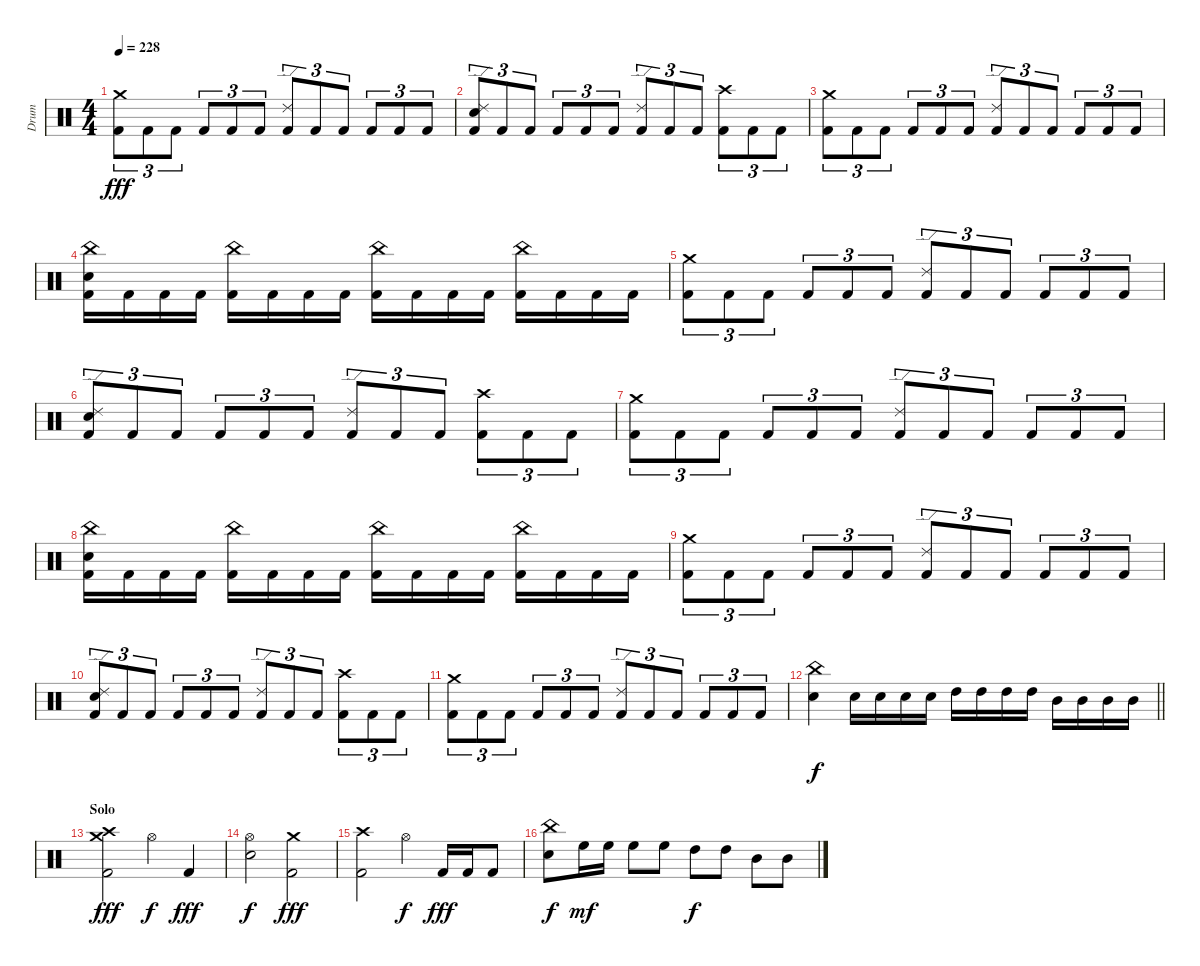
\track ("Drum" "Drum") {instrument percussion}
\staff {score}
\articulation defaults
\ts (4 4)
\tempo 228
\clef neutral
\ks c
("Crash medium (hit)" "Kick (hit) 2").8{tu (3 2) dy fff} "Kick (hit) 2".8{tu (3 2)} "Kick (hit) 2".8{tu (3 2)} "Kick (hit) 2".8{tu (3 2)} "Kick (hit) 2".8{tu (3 2)} "Kick (hit) 2".8{tu (3 2)} ("Ride (edge) 2" "Kick (hit) 2").8{tu (3 2)} "Kick (hit) 2".8{tu (3 2)} "Kick (hit) 2".8{tu (3 2)} "Kick (hit) 2".8{tu (3 2)} "Kick (hit) 2".8{tu (3 2)} "Kick (hit) 2".8{tu (3 2)} |
("Ride (edge) 2" "Snare (hit) 2" "Kick (hit) 2").8{tu (3 2)} "Kick (hit) 2".8{tu (3 2)} "Kick (hit) 2".8{tu (3 2)} "Kick (hit) 2".8{tu (3 2)} "Kick (hit) 2".8{tu (3 2)} "Kick (hit) 2".8{tu (3 2)} ("Ride (edge) 2" "Kick (hit) 2").8{tu (3 2)} "Kick (hit) 2".8{tu (3 2)} "Kick (hit) 2".8{tu (3 2)} ("Crash high (hit)" "Kick (hit) 2").8{tu (3 2)} "Kick (hit) 2".8{tu (3 2)} "Kick (hit) 2".8{tu (3 2)} |
("Crash medium (hit)" "Kick (hit) 2").8{tu (3 2)} "Kick (hit) 2".8{tu (3 2)} "Kick (hit) 2".8{tu (3 2)} "Kick (hit) 2".8{tu (3 2)} "Kick (hit) 2".8{tu (3 2)} "Kick (hit) 2".8{tu (3 2)} ("Ride (edge) 2" "Kick (hit) 2").8{tu (3 2)} "Kick (hit) 2".8{tu (3 2)} "Kick (hit) 2".8{tu (3 2)} "Kick (hit) 2".8{tu (3 2)} "Kick (hit) 2".8{tu (3 2)} "Kick (hit) 2".8{tu (3 2)} |
("China (hit)" "Snare (hit) 2" "Kick (hit) 2").16 "Kick (hit) 2".16 "Kick (hit) 2".16 "Kick (hit) 2".16 ("China (hit)" "Kick (hit) 2").16 "Kick (hit) 2".16 "Kick (hit) 2".16 "Kick (hit) 2".16 ("China (hit)" "Kick (hit) 2").16 "Kick (hit) 2".16 "Kick (hit) 2".16 "Kick (hit) 2".16 ("China (hit)" "Kick (hit) 2").16 "Kick (hit) 2".16 "Kick (hit) 2".16 "Kick (hit) 2".16 |
("Crash medium (hit)" "Kick (hit) 2").8{tu (3 2)} "Kick (hit) 2".8{tu (3 2)} "Kick (hit) 2".8{tu (3 2)} "Kick (hit) 2".8{tu (3 2)} "Kick (hit) 2".8{tu (3 2)} "Kick (hit) 2".8{tu (3 2)} ("Ride (edge) 2" "Kick (hit) 2").8{tu (3 2)} "Kick (hit) 2".8{tu (3 2)} "Kick (hit) 2".8{tu (3 2)} "Kick (hit) 2".8{tu (3 2)} "Kick (hit) 2".8{tu (3 2)} "Kick (hit) 2".8{tu (3 2)} |
("Ride (edge) 2" "Snare (hit) 2" "Kick (hit) 2").8{tu (3 2)} "Kick (hit) 2".8{tu (3 2)} "Kick (hit) 2".8{tu (3 2)} "Kick (hit) 2".8{tu (3 2)} "Kick (hit) 2".8{tu (3 2)} "Kick (hit) 2".8{tu (3 2)} ("Ride (edge) 2" "Kick (hit) 2").8{tu (3 2)} "Kick (hit) 2".8{tu (3 2)} "Kick (hit) 2".8{tu (3 2)} ("Crash high (hit)" "Kick (hit) 2").8{tu (3 2)} "Kick (hit) 2".8{tu (3 2)} "Kick (hit) 2".8{tu (3 2)} |
("Crash medium (hit)" "Kick (hit) 2").8{tu (3 2)} "Kick (hit) 2".8{tu (3 2)} "Kick (hit) 2".8{tu (3 2)} "Kick (hit) 2".8{tu (3 2)} "Kick (hit) 2".8{tu (3 2)} "Kick (hit) 2".8{tu (3 2)} ("Ride (edge) 2" "Kick (hit) 2").8{tu (3 2)} "Kick (hit) 2".8{tu (3 2)} "Kick (hit) 2".8{tu (3 2)} "Kick (hit) 2".8{tu (3 2)} "Kick (hit) 2".8{tu (3 2)} "Kick (hit) 2".8{tu (3 2)} |
("China (hit)" "Snare (hit) 2" "Kick (hit) 2").16 "Kick (hit) 2".16 "Kick (hit) 2".16 "Kick (hit) 2".16 ("China (hit)" "Kick (hit) 2").16 "Kick (hit) 2".16 "Kick (hit) 2".16 "Kick (hit) 2".16 ("China (hit)" "Kick (hit) 2").16 "Kick (hit) 2".16 "Kick (hit) 2".16 "Kick (hit) 2".16 ("China (hit)" "Kick (hit) 2").16 "Kick (hit) 2".16 "Kick (hit) 2".16 "Kick (hit) 2".16 |
("Crash medium (hit)" "Kick (hit) 2").8{tu (3 2)} "Kick (hit) 2".8{tu (3 2)} "Kick (hit) 2".8{tu (3 2)} "Kick (hit) 2".8{tu (3 2)} "Kick (hit) 2".8{tu (3 2)} "Kick (hit) 2".8{tu (3 2)} ("Ride (edge) 2" "Kick (hit) 2").8{tu (3 2)} "Kick (hit) 2".8{tu (3 2)} "Kick (hit) 2".8{tu (3 2)} "Kick (hit) 2".8{tu (3 2)} "Kick (hit) 2".8{tu (3 2)} "Kick (hit) 2".8{tu (3 2)} |
("Ride (edge) 2" "Snare (hit) 2" "Kick (hit) 2").8{tu (3 2)} "Kick (hit) 2".8{tu (3 2)} "Kick (hit) 2".8{tu (3 2)} "Kick (hit) 2".8{tu (3 2)} "Kick (hit) 2".8{tu (3 2)} "Kick (hit) 2".8{tu (3 2)} ("Ride (edge) 2" "Kick (hit) 2").8{tu (3 2)} "Kick (hit) 2".8{tu (3 2)} "Kick (hit) 2".8{tu (3 2)} ("Crash high (hit)" "Kick (hit) 2").8{tu (3 2)} "Kick (hit) 2".8{tu (3 2)} "Kick (hit) 2".8{tu (3 2)} |
("Crash medium (hit)" "Kick (hit) 2").8{tu (3 2)} "Kick (hit) 2".8{tu (3 2)} "Kick (hit) 2".8{tu (3 2)} "Kick (hit) 2".8{tu (3 2)} "Kick (hit) 2".8{tu (3 2)} "Kick (hit) 2".8{tu (3 2)} ("Ride (edge) 2" "Kick (hit) 2").8{tu (3 2)} "Kick (hit) 2".8{tu (3 2)} "Kick (hit) 2".8{tu (3 2)} "Kick (hit) 2".8{tu (3 2)} "Kick (hit) 2".8{tu (3 2)} "Kick (hit) 2".8{tu (3 2)} |
\barLineRight lightlight
("China (hit)" "Snare (hit) 2").4{dy f} "Snare (hit) 2".16 "Snare (hit) 2".16 "Snare (hit) 2".16 "Snare (hit) 2".16 "High Tom (hit)".16 "High Tom (hit)".16 "High Tom (hit)".16 "High Tom (hit)".16 "Mid Tom (hit)".16 "Mid Tom (hit)".16 "Mid Tom (hit)".16 "Mid Tom (hit)".16 |
\section ("" "Solo")
("Crash medium (hit)" "Crash high (hit)" "Kick (hit) 2").2{dy fff} "Hi-Hat (open)".4{dy f} "Kick (hit) 2".4{dy fff} |
("Hi-Hat (open)" "Snare (hit) 2").2{dy f} ("Crash medium (hit)" "Kick (hit) 2").2{dy fff} |
("Crash high (hit)" "Kick (hit) 2").2 "Hi-Hat (open)".4{dy f} "Kick (hit) 2".16{dy fff} "Kick (hit) 2".16 "Kick (hit) 2".8 |
("China (hit)" "Snare (hit) 2").8{dy f} "High Floor Tom (hit)".16{dy mf} "High Floor Tom (hit)".16 "High Floor Tom (hit)".8 "High Floor Tom (hit)".8 "High Tom (hit)".8{dy f} "High Tom (hit)".8 "Mid Tom (hit)".8 "Mid Tom (hit)".8
